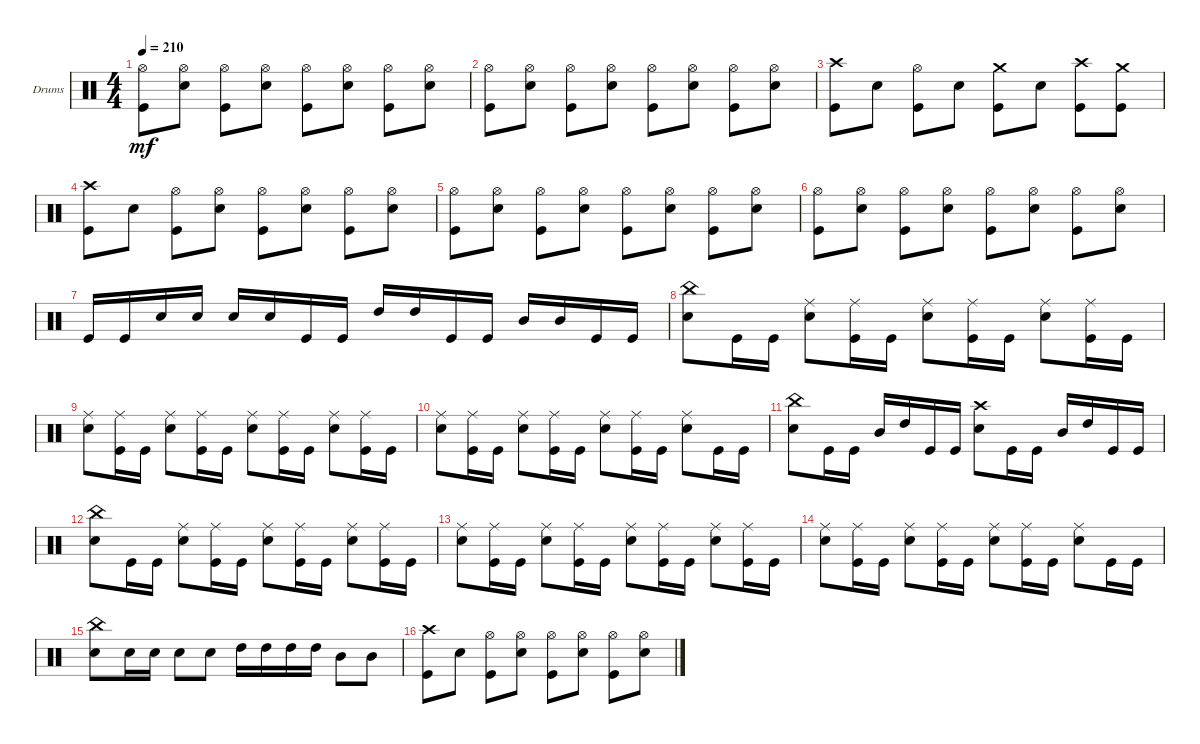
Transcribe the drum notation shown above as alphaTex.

\bracketExtendMode groupsimilarinstruments
\firstSystemTrackNameOrientation horizontal
\otherSystemsTrackNameOrientation horizontal
\track ("Drumkit" "Drums") {instrument percussion}
\staff {score}
\articulation defaults
\ts (4 4)
\tempo 210
\clef neutral
\ks c
("Hi-Hat (open)" "Kick (hit)").8{dy mf} ("Hi-Hat (open)" "Snare (hit) 2").8 ("Hi-Hat (open)" "Kick (hit)").8 ("Hi-Hat (open)" "Snare (hit) 2").8 ("Hi-Hat (open)" "Kick (hit)").8 ("Hi-Hat (open)" "Snare (hit) 2").8 ("Hi-Hat (open)" "Kick (hit)").8 ("Hi-Hat (open)" "Snare (hit) 2").8 |
("Hi-Hat (open)" "Kick (hit)").8 ("Hi-Hat (open)" "Snare (hit) 2").8 ("Hi-Hat (open)" "Kick (hit)").8 ("Hi-Hat (open)" "Snare (hit) 2").8 ("Hi-Hat (open)" "Kick (hit)").8 ("Hi-Hat (open)" "Snare (hit) 2").8 ("Hi-Hat (open)" "Kick (hit)").8 ("Hi-Hat (open)" "Snare (hit) 2").8 |
("Kick (hit)" "Crash high (hit)").8 "Snare (hit) 2".8 ("Hi-Hat (open)" "Kick (hit)").8 "Snare (hit) 2".8 ("Kick (hit)" "Crash medium (hit)").8 "Snare (hit) 2".8 ("Kick (hit)" "Crash high (hit)").8 ("Kick (hit)" "Crash medium (hit)").8 |
("Kick (hit)" "Crash high (hit)").8 "Snare (hit) 2".8 ("Hi-Hat (open)" "Kick (hit)").8 ("Hi-Hat (open)" "Snare (hit) 2").8 ("Hi-Hat (open)" "Kick (hit)").8 ("Hi-Hat (open)" "Snare (hit) 2").8 ("Hi-Hat (open)" "Kick (hit)").8 ("Hi-Hat (open)" "Snare (hit) 2").8 |
("Hi-Hat (open)" "Kick (hit)").8 ("Hi-Hat (open)" "Snare (hit) 2").8 ("Hi-Hat (open)" "Kick (hit)").8 ("Hi-Hat (open)" "Snare (hit) 2").8 ("Hi-Hat (open)" "Kick (hit)").8 ("Hi-Hat (open)" "Snare (hit) 2").8 ("Hi-Hat (open)" "Kick (hit)").8 ("Hi-Hat (open)" "Snare (hit) 2").8 |
("Hi-Hat (open)" "Kick (hit)").8 ("Hi-Hat (open)" "Snare (hit) 2").8 ("Hi-Hat (open)" "Kick (hit)").8 ("Hi-Hat (open)" "Snare (hit) 2").8 ("Hi-Hat (open)" "Kick (hit)").8 ("Hi-Hat (open)" "Snare (hit) 2").8 ("Hi-Hat (open)" "Kick (hit)").8 ("Hi-Hat (open)" "Snare (hit) 2").8 |
"Kick (hit)".16 "Kick (hit)".16 "Snare (hit) 2".16 "Snare (hit) 2".16 "Snare (hit) 2".16 "Snare (hit) 2".16 "Kick (hit)".16 "Kick (hit)".16 "High Tom (hit)".16 "High Tom (hit)".16 "Kick (hit)".16 "Kick (hit)".16 "Mid Tom (hit)".16 "Mid Tom (hit)".16 "Kick (hit)".16 "Kick (hit)".16 |
("Snare (hit) 2" "China (hit)").8 "Kick (hit)".16 "Kick (hit)".16 ("Ride (middle)" "Snare (hit) 2").8 ("Ride (middle)" "Kick (hit)").16 "Kick (hit)".16 ("Ride (middle)" "Snare (hit) 2").8 ("Ride (middle)" "Kick (hit)").16 "Kick (hit)".16 ("Ride (middle)" "Snare (hit) 2").8 ("Ride (middle)" "Kick (hit)").16 "Kick (hit)".16 |
("Ride (middle)" "Snare (hit) 2").8 ("Ride (middle)" "Kick (hit)").16 "Kick (hit)".16 ("Ride (middle)" "Snare (hit) 2").8 ("Ride (middle)" "Kick (hit)").16 "Kick (hit)".16 ("Ride (middle)" "Snare (hit) 2").8 ("Ride (middle)" "Kick (hit)").16 "Kick (hit)".16 ("Ride (middle)" "Snare (hit) 2").8 ("Ride (middle)" "Kick (hit)").16 "Kick (hit)".16 |
("Ride (middle)" "Snare (hit) 2").8 ("Ride (middle)" "Kick (hit)").16 "Kick (hit)".16 ("Ride (middle)" "Snare (hit) 2").8 ("Ride (middle)" "Kick (hit)").16 "Kick (hit)".16 ("Ride (middle)" "Snare (hit) 2").8 ("Ride (middle)" "Kick (hit)").16 "Kick (hit)".16 ("Ride (middle)" "Snare (hit) 2").8 "Kick (hit)".16 "Kick (hit)".16 |
("Snare (hit) 2" "China (hit)").8 "Kick (hit)".16 "Kick (hit)".16 "Mid Tom (hit)".16 "High Tom (hit)".16 "Kick (hit)".16 "Kick (hit)".16 ("Snare (hit) 2" "Crash high (hit)").8 "Kick (hit)".16 "Kick (hit)".16 "Mid Tom (hit)".16 "High Tom (hit)".16 "Kick (hit)".16 "Kick (hit)".16 |
("Snare (hit) 2" "China (hit)").8 "Kick (hit)".16 "Kick (hit)".16 ("Ride (middle)" "Snare (hit) 2").8 ("Ride (middle)" "Kick (hit)").16 "Kick (hit)".16 ("Ride (middle)" "Snare (hit) 2").8 ("Ride (middle)" "Kick (hit)").16 "Kick (hit)".16 ("Ride (middle)" "Snare (hit) 2").8 ("Ride (middle)" "Kick (hit)").16 "Kick (hit)".16 |
("Ride (middle)" "Snare (hit) 2").8 ("Ride (middle)" "Kick (hit)").16 "Kick (hit)".16 ("Ride (middle)" "Snare (hit) 2").8 ("Ride (middle)" "Kick (hit)").16 "Kick (hit)".16 ("Ride (middle)" "Snare (hit) 2").8 ("Ride (middle)" "Kick (hit)").16 "Kick (hit)".16 ("Ride (middle)" "Snare (hit) 2").8 ("Ride (middle)" "Kick (hit)").16 "Kick (hit)".16 |
("Ride (middle)" "Snare (hit) 2").8 ("Ride (middle)" "Kick (hit)").16 "Kick (hit)".16 ("Ride (middle)" "Snare (hit) 2").8 ("Ride (middle)" "Kick (hit)").16 "Kick (hit)".16 ("Ride (middle)" "Snare (hit) 2").8 ("Ride (middle)" "Kick (hit)").16 "Kick (hit)".16 ("Ride (middle)" "Snare (hit) 2").8 "Kick (hit)".16 "Kick (hit)".16 |
("Snare (hit) 2" "China (hit)").8 "Snare (hit) 2".16 "Snare (hit) 2".16 "Snare (hit) 2".8 "Snare (hit) 2".8 "High Tom (hit)".16 "High Tom (hit)".16 "High Tom (hit)".16 "High Tom (hit)".16 "Mid Tom (hit)".8 "Mid Tom (hit)".8 |
("Kick (hit)" "Crash high (hit)").8 "Snare (hit) 2".8 ("Hi-Hat (open)" "Kick (hit)").8 ("Hi-Hat (open)" "Snare (hit) 2").8 ("Hi-Hat (open)" "Kick (hit)").8 ("Hi-Hat (open)" "Snare (hit) 2").8 ("Hi-Hat (open)" "Kick (hit)").8 ("Hi-Hat (open)" "Snare (hit) 2").8
